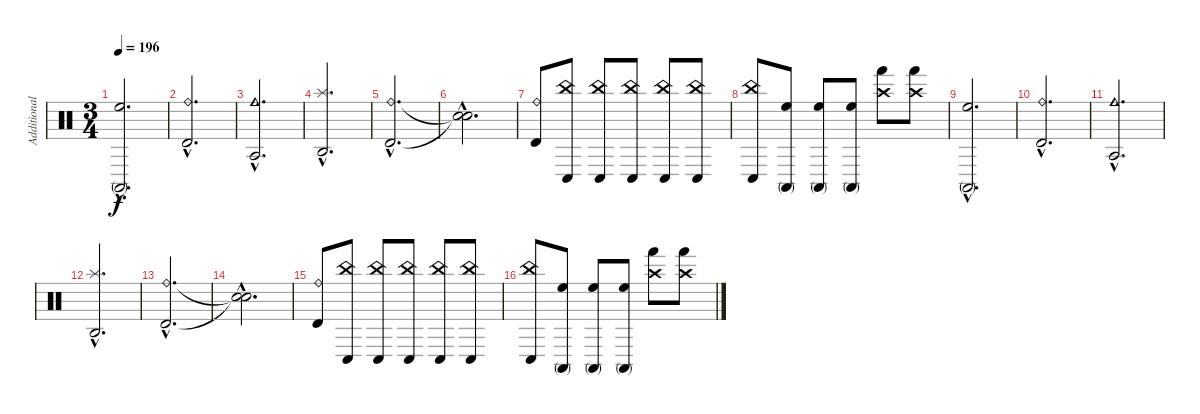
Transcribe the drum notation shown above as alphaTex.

\track ("Additional" "Additional") {instrument percussion}
\staff {score}
\articulation defaults
\ts (3 4)
\tempo 196
\clef neutral
\ks c
("Conga high (mute)"{hac} "High Floor Tom (hit)"{hac}).2{d dy f} |
("Timbale high (hit)"{hac} "Ride (bell)"{hac}).2{d} |
("Agogo tow (hit)"{hac} "Cowbell medium (hit)"{hac}).2{d} |
("Agogo high (hit)"{hac} "Splash (hit)"{hac}).2{d} |
("Timbale high (hit)"{hac} "Ride (bell)"{hac}).2{d} |
("Snare (hit)"{hac t} "Snare (hit)"{hac t}).2{d} |
("Timbale high (hit)" "Ride (bell)").8 ("Conga low (hit)" "China (hit)").8 ("Conga low (hit)" "China (hit)").8 ("Conga low (hit)" "China (hit)").8 ("Conga low (hit)" "China (hit)").8 ("Conga low (hit)" "China (hit)").8 |
("Conga low (hit)" "China (hit)").8 ("Conga high (mute)" "High Floor Tom (hit)").8 ("Conga high (mute)" "High Floor Tom (hit)").8 ("Conga high (mute)" "High Floor Tom (hit)").8 ("Hand (hit)" "Crash high (hit)").8 ("Hand (hit)" "Crash high (hit)").8 |
("Conga high (mute)"{hac} "High Floor Tom (hit)"{hac}).2{d} |
("Timbale high (hit)"{hac} "Ride (bell)"{hac}).2{d} |
("Agogo tow (hit)"{hac} "Cowbell medium (hit)"{hac}).2{d} |
("Agogo high (hit)"{hac} "Splash (hit)"{hac}).2{d} |
("Timbale high (hit)"{hac} "Ride (bell)"{hac}).2{d} |
("Snare (hit)"{hac t} "Snare (hit)"{hac t}).2{d} |
("Timbale high (hit)" "Ride (bell)").8 ("Conga low (hit)" "China (hit)").8 ("Conga low (hit)" "China (hit)").8 ("Conga low (hit)" "China (hit)").8 ("Conga low (hit)" "China (hit)").8 ("Conga low (hit)" "China (hit)").8 |
("Conga low (hit)" "China (hit)").8 ("Conga high (mute)" "High Floor Tom (hit)").8 ("Conga high (mute)" "High Floor Tom (hit)").8 ("Conga high (mute)" "High Floor Tom (hit)").8 ("Hand (hit)" "Crash high (hit)").8 ("Hand (hit)" "Crash high (hit)").8
